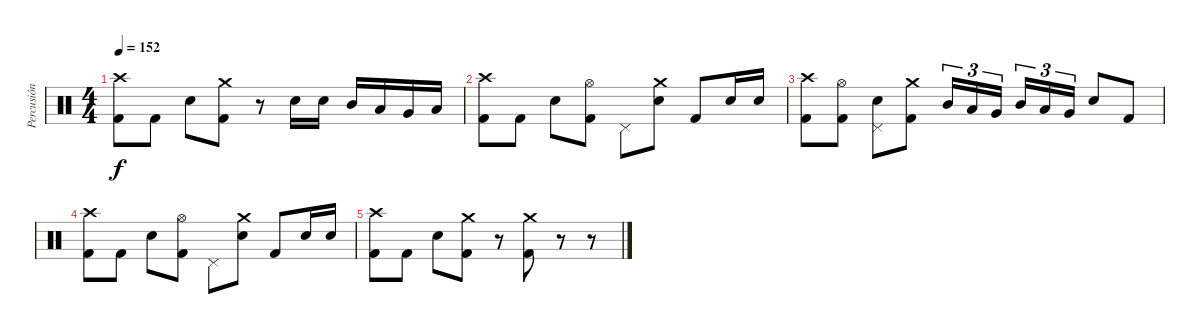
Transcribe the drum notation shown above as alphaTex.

\track ("Percusión" "Percusión") {instrument percussion}
\staff {score}
\articulation defaults
\ts (4 4)
\tempo 152
\clef neutral
\ks c
("Kick (hit) 2" "Crash high (hit)").8{dy f} "Kick (hit) 2".8 "Snare (hit) 2".8 ("Kick (hit) 2" "Crash medium (hit)").8 r.8 "Snare (hit) 2".16 "Snare (hit) 2".16 "Mid Tom (hit)".16 "Low Tom (hit)".16 "Very Low Tom (hit)".16 "Low Floor Tom (hit)".16 |
("Kick (hit) 2" "Crash high (hit)").8 "Kick (hit) 2".8 "Snare (hit) 2".8 ("Kick (hit) 2" "Hi-Hat (open)").8 "Pedal Hi-Hat (hit)".8 ("Snare (hit) 2" "Crash medium (hit)").8 "Kick (hit) 2".8 "Snare (hit) 2".16 "Snare (hit) 2".16 |
("Kick (hit) 2" "Crash high (hit)").8 ("Kick (hit) 2" "Hi-Hat (open)").8 ("Snare (hit) 2" "Pedal Hi-Hat (hit)").8 ("Kick (hit) 2" "Crash medium (hit)").8 "Mid Tom (hit)".16{tu (3 2)} "Low Tom (hit)".16{tu (3 2)} "Very Low Tom (hit)".16{tu (3 2) beam splitsecondary} "Mid Tom (hit)".16{tu (3 2)} "Low Tom (hit)".16{tu (3 2)} "Very Low Tom (hit)".16{tu (3 2)} "Snare (hit) 2".8 "Kick (hit) 2".8 |
("Kick (hit) 2" "Crash high (hit)").8 "Kick (hit) 2".8 "Snare (hit) 2".8 ("Kick (hit) 2" "Hi-Hat (open)").8 "Pedal Hi-Hat (hit)".8 ("Snare (hit) 2" "Crash medium (hit)").8 "Kick (hit) 2".8 "Snare (hit) 2".16 "Snare (hit) 2".16 |
("Kick (hit) 2" "Crash high (hit)").8 "Kick (hit) 2".8 "Snare (hit) 2".8 ("Kick (hit) 2" "Crash medium (hit)").8 r.8 ("Kick (hit) 2" "Crash medium (hit)").8 r.8 r.8
